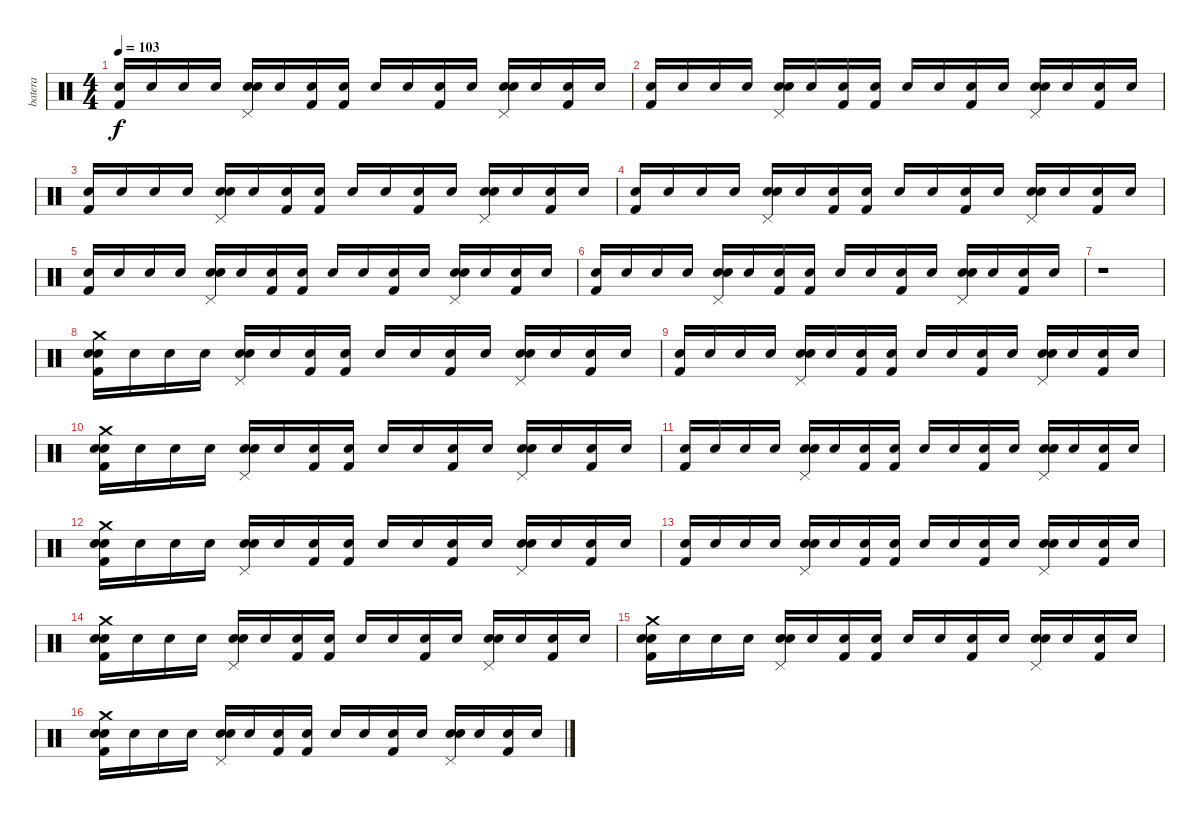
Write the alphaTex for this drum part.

\track ("batera" "batera") {instrument percussion}
\staff {score}
\articulation defaults
\ts (4 4)
\tempo 103
\clef neutral
\ks c
("Snare (hit)" "Kick (hit) 2").16{dy f} "Snare (hit)".16 "Snare (hit)".16 "Snare (hit)".16 ("Snare (hit)" "Pedal Hi-Hat (hit)" "Snare (hit) 2").16 "Snare (hit)".16 ("Snare (hit)" "Kick (hit) 2").16 ("Snare (hit)" "Kick (hit) 2").16 "Snare (hit)".16 "Snare (hit)".16 ("Snare (hit)" "Kick (hit) 2").16 "Snare (hit)".16 ("Snare (hit)" "Pedal Hi-Hat (hit)" "Snare (hit) 2").16 "Snare (hit)".16 ("Snare (hit)" "Kick (hit) 2").16 "Snare (hit)".16 |
("Snare (hit)" "Kick (hit) 2").16 "Snare (hit)".16 "Snare (hit)".16 "Snare (hit)".16 ("Snare (hit)" "Pedal Hi-Hat (hit)" "Snare (hit) 2").16 "Snare (hit)".16 ("Snare (hit)" "Kick (hit) 2").16 ("Snare (hit)" "Kick (hit) 2").16 "Snare (hit)".16 "Snare (hit)".16 ("Snare (hit)" "Kick (hit) 2").16 "Snare (hit)".16 ("Snare (hit)" "Pedal Hi-Hat (hit)" "Snare (hit) 2").16 "Snare (hit)".16 ("Snare (hit)" "Kick (hit) 2").16 "Snare (hit)".16 |
("Snare (hit)" "Kick (hit) 2").16 "Snare (hit)".16 "Snare (hit)".16 "Snare (hit)".16 ("Snare (hit)" "Pedal Hi-Hat (hit)" "Snare (hit) 2").16 "Snare (hit)".16 ("Snare (hit)" "Kick (hit) 2").16 ("Snare (hit)" "Kick (hit) 2").16 "Snare (hit)".16 "Snare (hit)".16 ("Snare (hit)" "Kick (hit) 2").16 "Snare (hit)".16 ("Snare (hit)" "Pedal Hi-Hat (hit)" "Snare (hit) 2").16 "Snare (hit)".16 ("Snare (hit)" "Kick (hit) 2").16 "Snare (hit)".16 |
("Snare (hit)" "Kick (hit) 2").16 "Snare (hit)".16 "Snare (hit)".16 "Snare (hit)".16 ("Snare (hit)" "Pedal Hi-Hat (hit)" "Snare (hit) 2").16 "Snare (hit)".16 ("Snare (hit)" "Kick (hit) 2").16 ("Snare (hit)" "Kick (hit) 2").16 "Snare (hit)".16 "Snare (hit)".16 ("Snare (hit)" "Kick (hit) 2").16 "Snare (hit)".16 ("Snare (hit)" "Pedal Hi-Hat (hit)" "Snare (hit) 2").16 "Snare (hit)".16 ("Snare (hit)" "Kick (hit) 2").16 "Snare (hit)".16 |
("Snare (hit)" "Kick (hit) 2").16 "Snare (hit)".16 "Snare (hit)".16 "Snare (hit)".16 ("Snare (hit)" "Pedal Hi-Hat (hit)" "Snare (hit) 2").16 "Snare (hit)".16 ("Snare (hit)" "Kick (hit) 2").16 ("Snare (hit)" "Kick (hit) 2").16 "Snare (hit)".16 "Snare (hit)".16 ("Snare (hit)" "Kick (hit) 2").16 "Snare (hit)".16 ("Snare (hit)" "Pedal Hi-Hat (hit)" "Snare (hit) 2").16 "Snare (hit)".16 ("Snare (hit)" "Kick (hit) 2").16 "Snare (hit)".16 |
("Snare (hit)" "Kick (hit) 2").16 "Snare (hit)".16 "Snare (hit)".16 "Snare (hit)".16 ("Snare (hit)" "Pedal Hi-Hat (hit)" "Snare (hit) 2").16 "Snare (hit)".16 ("Snare (hit)" "Kick (hit) 2").16 ("Snare (hit)" "Kick (hit) 2").16 "Snare (hit)".16 "Snare (hit)".16 ("Snare (hit)" "Kick (hit) 2").16 "Snare (hit)".16 ("Snare (hit)" "Pedal Hi-Hat (hit)" "Snare (hit) 2").16 "Snare (hit)".16 ("Snare (hit)" "Kick (hit) 2").16 "Snare (hit)".16 |
r.1 |
("Snare (hit)" "Crash medium (hit)" "Kick (hit) 2" "Snare (hit) 2").16 "Snare (hit)".16 "Snare (hit)".16 "Snare (hit)".16 ("Snare (hit)" "Pedal Hi-Hat (hit)" "Snare (hit) 2").16 "Snare (hit)".16 ("Snare (hit)" "Kick (hit) 2").16 ("Snare (hit)" "Kick (hit) 2").16 "Snare (hit)".16 "Snare (hit)".16 ("Snare (hit)" "Kick (hit) 2").16 "Snare (hit)".16 ("Snare (hit)" "Pedal Hi-Hat (hit)" "Snare (hit) 2").16 "Snare (hit)".16 ("Snare (hit)" "Kick (hit) 2").16 "Snare (hit)".16 |
("Snare (hit)" "Kick (hit) 2").16 "Snare (hit)".16 "Snare (hit)".16 "Snare (hit)".16 ("Snare (hit)" "Pedal Hi-Hat (hit)" "Snare (hit) 2").16 "Snare (hit)".16 ("Snare (hit)" "Kick (hit) 2").16 ("Snare (hit)" "Kick (hit) 2").16 "Snare (hit)".16 "Snare (hit)".16 ("Snare (hit)" "Kick (hit) 2").16 "Snare (hit)".16 ("Snare (hit)" "Pedal Hi-Hat (hit)" "Snare (hit) 2").16 "Snare (hit)".16 ("Snare (hit)" "Kick (hit) 2").16 "Snare (hit)".16 |
("Snare (hit)" "Crash medium (hit)" "Kick (hit) 2" "Snare (hit) 2").16 "Snare (hit)".16 "Snare (hit)".16 "Snare (hit)".16 ("Snare (hit)" "Pedal Hi-Hat (hit)" "Snare (hit) 2").16 "Snare (hit)".16 ("Snare (hit)" "Kick (hit) 2").16 ("Snare (hit)" "Kick (hit) 2").16 "Snare (hit)".16 "Snare (hit)".16 ("Snare (hit)" "Kick (hit) 2").16 "Snare (hit)".16 ("Snare (hit)" "Pedal Hi-Hat (hit)" "Snare (hit) 2").16 "Snare (hit)".16 ("Snare (hit)" "Kick (hit) 2").16 "Snare (hit)".16 |
("Snare (hit)" "Kick (hit) 2").16 "Snare (hit)".16 "Snare (hit)".16 "Snare (hit)".16 ("Snare (hit)" "Pedal Hi-Hat (hit)" "Snare (hit) 2").16 "Snare (hit)".16 ("Snare (hit)" "Kick (hit) 2").16 ("Snare (hit)" "Kick (hit) 2").16 "Snare (hit)".16 "Snare (hit)".16 ("Snare (hit)" "Kick (hit) 2").16 "Snare (hit)".16 ("Snare (hit)" "Pedal Hi-Hat (hit)" "Snare (hit) 2").16 "Snare (hit)".16 ("Snare (hit)" "Kick (hit) 2").16 "Snare (hit)".16 |
("Snare (hit)" "Crash medium (hit)" "Kick (hit) 2" "Snare (hit) 2").16 "Snare (hit)".16 "Snare (hit)".16 "Snare (hit)".16 ("Snare (hit)" "Pedal Hi-Hat (hit)" "Snare (hit) 2").16 "Snare (hit)".16 ("Snare (hit)" "Kick (hit) 2").16 ("Snare (hit)" "Kick (hit) 2").16 "Snare (hit)".16 "Snare (hit)".16 ("Snare (hit)" "Kick (hit) 2").16 "Snare (hit)".16 ("Snare (hit)" "Pedal Hi-Hat (hit)" "Snare (hit) 2").16 "Snare (hit)".16 ("Snare (hit)" "Kick (hit) 2").16 "Snare (hit)".16 |
("Snare (hit)" "Kick (hit) 2").16 "Snare (hit)".16 "Snare (hit)".16 "Snare (hit)".16 ("Snare (hit)" "Pedal Hi-Hat (hit)" "Snare (hit) 2").16 "Snare (hit)".16 ("Snare (hit)" "Kick (hit) 2").16 ("Snare (hit)" "Kick (hit) 2").16 "Snare (hit)".16 "Snare (hit)".16 ("Snare (hit)" "Kick (hit) 2").16 "Snare (hit)".16 ("Snare (hit)" "Pedal Hi-Hat (hit)" "Snare (hit) 2").16 "Snare (hit)".16 ("Snare (hit)" "Kick (hit) 2").16 "Snare (hit)".16 |
("Snare (hit)" "Crash medium (hit)" "Kick (hit) 2" "Snare (hit) 2").16 "Snare (hit)".16 "Snare (hit)".16 "Snare (hit)".16 ("Snare (hit)" "Pedal Hi-Hat (hit)" "Snare (hit) 2").16 "Snare (hit)".16 ("Snare (hit)" "Kick (hit) 2").16 ("Snare (hit)" "Kick (hit) 2").16 "Snare (hit)".16 "Snare (hit)".16 ("Snare (hit)" "Kick (hit) 2").16 "Snare (hit)".16 ("Snare (hit)" "Pedal Hi-Hat (hit)" "Snare (hit) 2").16 "Snare (hit)".16 ("Snare (hit)" "Kick (hit) 2").16 "Snare (hit)".16 |
("Snare (hit)" "Crash medium (hit)" "Kick (hit) 2" "Snare (hit) 2").16 "Snare (hit)".16 "Snare (hit)".16 "Snare (hit)".16 ("Snare (hit)" "Pedal Hi-Hat (hit)" "Snare (hit) 2").16 "Snare (hit)".16 ("Snare (hit)" "Kick (hit) 2").16 ("Snare (hit)" "Kick (hit) 2").16 "Snare (hit)".16 "Snare (hit)".16 ("Snare (hit)" "Kick (hit) 2").16 "Snare (hit)".16 ("Snare (hit)" "Pedal Hi-Hat (hit)" "Snare (hit) 2").16 "Snare (hit)".16 ("Snare (hit)" "Kick (hit) 2").16 "Snare (hit)".16 |
("Snare (hit)" "Crash medium (hit)" "Kick (hit) 2" "Snare (hit) 2").16 "Snare (hit)".16 "Snare (hit)".16 "Snare (hit)".16 ("Snare (hit)" "Pedal Hi-Hat (hit)" "Snare (hit) 2").16 "Snare (hit)".16 ("Snare (hit)" "Kick (hit) 2").16 ("Snare (hit)" "Kick (hit) 2").16 "Snare (hit)".16 "Snare (hit)".16 ("Snare (hit)" "Kick (hit) 2").16 "Snare (hit)".16 ("Snare (hit)" "Pedal Hi-Hat (hit)" "Snare (hit) 2").16 "Snare (hit)".16 ("Snare (hit)" "Kick (hit) 2").16 "Snare (hit)".16
